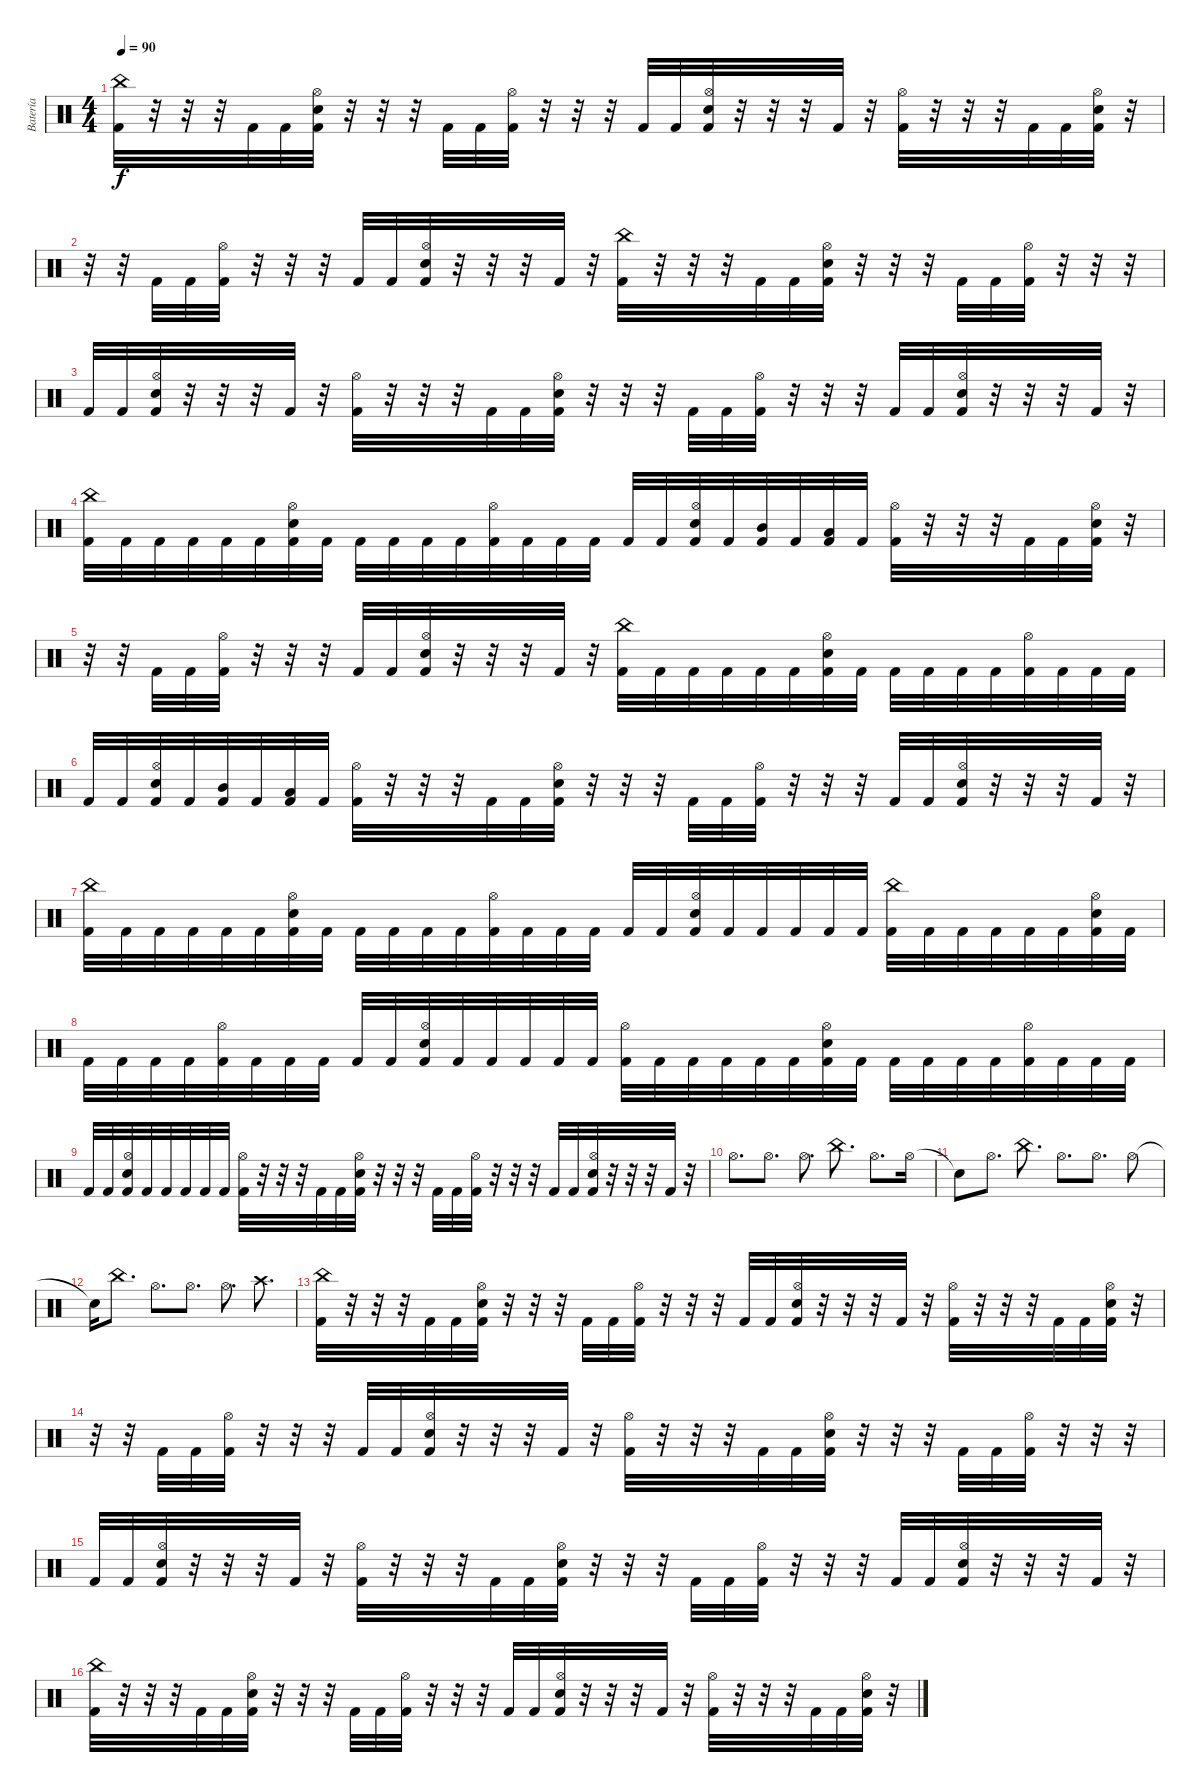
\track ("Batería" "Batería") {instrument percussion}
\staff {score}
\articulation defaults
\ts (4 4)
\tempo 90
\clef neutral
\ks c
("China (hit)" "Kick (hit) 2").32{dy f} r.32 r.32 r.32 "Kick (hit) 2".32 "Kick (hit) 2".32 ("Hi-Hat (open)" "Snare (hit) 2" "Kick (hit) 2").32 r.32 r.32 r.32 "Kick (hit) 2".32 "Kick (hit) 2".32 ("Hi-Hat (open)" "Kick (hit) 2").32 r.32 r.32 r.32 "Kick (hit) 2".32 "Kick (hit) 2".32 ("Hi-Hat (open)" "Snare (hit) 2" "Kick (hit) 2").32 r.32 r.32 r.32 "Kick (hit) 2".32 r.32 ("Hi-Hat (open)" "Kick (hit) 2").32 r.32 r.32 r.32 "Kick (hit) 2".32 "Kick (hit) 2".32 ("Hi-Hat (open)" "Snare (hit) 2" "Kick (hit) 2").32 r.32 |
r.32 r.32 "Kick (hit) 2".32 "Kick (hit) 2".32 ("Hi-Hat (open)" "Kick (hit) 2").32 r.32 r.32 r.32 "Kick (hit) 2".32 "Kick (hit) 2".32 ("Hi-Hat (open)" "Snare (hit) 2" "Kick (hit) 2").32 r.32 r.32 r.32 "Kick (hit) 2".32 r.32 ("China (hit)" "Kick (hit) 2").32 r.32 r.32 r.32 "Kick (hit) 2".32 "Kick (hit) 2".32 ("Hi-Hat (open)" "Snare (hit) 2" "Kick (hit) 2").32 r.32 r.32 r.32 "Kick (hit) 2".32 "Kick (hit) 2".32 ("Hi-Hat (open)" "Kick (hit) 2").32 r.32 r.32 r.32 |
"Kick (hit) 2".32 "Kick (hit) 2".32 ("Hi-Hat (open)" "Snare (hit) 2" "Kick (hit) 2").32 r.32 r.32 r.32 "Kick (hit) 2".32 r.32 ("Hi-Hat (open)" "Kick (hit) 2").32 r.32 r.32 r.32 "Kick (hit) 2".32 "Kick (hit) 2".32 ("Hi-Hat (open)" "Snare (hit) 2" "Kick (hit) 2").32 r.32 r.32 r.32 "Kick (hit) 2".32 "Kick (hit) 2".32 ("Hi-Hat (open)" "Kick (hit) 2").32 r.32 r.32 r.32 "Kick (hit) 2".32 "Kick (hit) 2".32 ("Hi-Hat (open)" "Snare (hit) 2" "Kick (hit) 2").32 r.32 r.32 r.32 "Kick (hit) 2".32 r.32 |
("China (hit)" "Kick (hit) 2").32 "Kick (hit) 2".32 "Kick (hit) 2".32 "Kick (hit) 2".32 "Kick (hit) 2".32 "Kick (hit) 2".32 ("Hi-Hat (open)" "Snare (hit) 2" "Kick (hit) 2").32 "Kick (hit) 2".32 "Kick (hit) 2".32 "Kick (hit) 2".32 "Kick (hit) 2".32 "Kick (hit) 2".32 ("Hi-Hat (open)" "Kick (hit) 2").32 "Kick (hit) 2".32 "Kick (hit) 2".32 "Kick (hit) 2".32 "Kick (hit) 2".32 "Kick (hit) 2".32 ("Hi-Hat (open)" "Snare (hit) 2" "Kick (hit) 2").32 "Kick (hit) 2".32 ("Mid Tom (hit)" "Kick (hit) 2").32 "Kick (hit) 2".32 ("Low Tom (hit)" "Kick (hit) 2").32 "Kick (hit) 2".32 ("Hi-Hat (open)" "Kick (hit) 2").32 r.32 r.32 r.32 "Kick (hit) 2".32 "Kick (hit) 2".32 ("Hi-Hat (open)" "Snare (hit) 2" "Kick (hit) 2").32 r.32 |
r.32 r.32 "Kick (hit) 2".32 "Kick (hit) 2".32 ("Hi-Hat (open)" "Kick (hit) 2").32 r.32 r.32 r.32 "Kick (hit) 2".32 "Kick (hit) 2".32 ("Hi-Hat (open)" "Snare (hit) 2" "Kick (hit) 2").32 r.32 r.32 r.32 "Kick (hit) 2".32 r.32 ("China (hit)" "Kick (hit) 2").32 "Kick (hit) 2".32 "Kick (hit) 2".32 "Kick (hit) 2".32 "Kick (hit) 2".32 "Kick (hit) 2".32 ("Hi-Hat (open)" "Snare (hit) 2" "Kick (hit) 2").32 "Kick (hit) 2".32 "Kick (hit) 2".32 "Kick (hit) 2".32 "Kick (hit) 2".32 "Kick (hit) 2".32 ("Hi-Hat (open)" "Kick (hit) 2").32 "Kick (hit) 2".32 "Kick (hit) 2".32 "Kick (hit) 2".32 |
"Kick (hit) 2".32 "Kick (hit) 2".32 ("Hi-Hat (open)" "Snare (hit) 2" "Kick (hit) 2").32 "Kick (hit) 2".32 ("Mid Tom (hit)" "Kick (hit) 2").32 "Kick (hit) 2".32 ("Low Tom (hit)" "Kick (hit) 2").32 "Kick (hit) 2".32 ("Hi-Hat (open)" "Kick (hit) 2").32 r.32 r.32 r.32 "Kick (hit) 2".32 "Kick (hit) 2".32 ("Hi-Hat (open)" "Snare (hit) 2" "Kick (hit) 2").32 r.32 r.32 r.32 "Kick (hit) 2".32 "Kick (hit) 2".32 ("Hi-Hat (open)" "Kick (hit) 2").32 r.32 r.32 r.32 "Kick (hit) 2".32 "Kick (hit) 2".32 ("Hi-Hat (open)" "Snare (hit) 2" "Kick (hit) 2").32 r.32 r.32 r.32 "Kick (hit) 2".32 r.32 |
("China (hit)" "Kick (hit) 2").32 "Kick (hit) 2".32 "Kick (hit) 2".32 "Kick (hit) 2".32 "Kick (hit) 2".32 "Kick (hit) 2".32 ("Hi-Hat (open)" "Snare (hit) 2" "Kick (hit) 2").32 "Kick (hit) 2".32 "Kick (hit) 2".32 "Kick (hit) 2".32 "Kick (hit) 2".32 "Kick (hit) 2".32 ("Hi-Hat (open)" "Kick (hit) 2").32 "Kick (hit) 2".32 "Kick (hit) 2".32 "Kick (hit) 2".32 "Kick (hit) 2".32 "Kick (hit) 2".32 ("Hi-Hat (open)" "Snare (hit) 2" "Kick (hit) 2").32 "Kick (hit) 2".32 "Kick (hit) 2".32 "Kick (hit) 2".32 "Kick (hit) 2".32 "Kick (hit) 2".32 ("China (hit)" "Kick (hit) 2").32 "Kick (hit) 2".32 "Kick (hit) 2".32 "Kick (hit) 2".32 "Kick (hit) 2".32 "Kick (hit) 2".32 ("Hi-Hat (open)" "Snare (hit) 2" "Kick (hit) 2").32 "Kick (hit) 2".32 |
"Kick (hit) 2".32 "Kick (hit) 2".32 "Kick (hit) 2".32 "Kick (hit) 2".32 ("Hi-Hat (open)" "Kick (hit) 2").32 "Kick (hit) 2".32 "Kick (hit) 2".32 "Kick (hit) 2".32 "Kick (hit) 2".32 "Kick (hit) 2".32 ("Hi-Hat (open)" "Snare (hit) 2" "Kick (hit) 2").32 "Kick (hit) 2".32 "Kick (hit) 2".32 "Kick (hit) 2".32 "Kick (hit) 2".32 "Kick (hit) 2".32 ("Hi-Hat (open)" "Kick (hit) 2").32 "Kick (hit) 2".32 "Kick (hit) 2".32 "Kick (hit) 2".32 "Kick (hit) 2".32 "Kick (hit) 2".32 ("Hi-Hat (open)" "Snare (hit) 2" "Kick (hit) 2").32 "Kick (hit) 2".32 "Kick (hit) 2".32 "Kick (hit) 2".32 "Kick (hit) 2".32 "Kick (hit) 2".32 ("Hi-Hat (open)" "Kick (hit) 2").32 "Kick (hit) 2".32 "Kick (hit) 2".32 "Kick (hit) 2".32 |
"Kick (hit) 2".32 "Kick (hit) 2".32 ("Hi-Hat (open)" "Snare (hit) 2" "Kick (hit) 2").32 "Kick (hit) 2".32 "Kick (hit) 2".32 "Kick (hit) 2".32 "Kick (hit) 2".32 "Kick (hit) 2".32 ("Hi-Hat (open)" "Kick (hit) 2").32 r.32 r.32 r.32 "Kick (hit) 2".32 "Kick (hit) 2".32 ("Hi-Hat (open)" "Snare (hit) 2" "Kick (hit) 2").32 r.32 r.32 r.32 "Kick (hit) 2".32 "Kick (hit) 2".32 ("Hi-Hat (open)" "Kick (hit) 2").32 r.32 r.32 r.32 "Kick (hit) 2".32 "Kick (hit) 2".32 ("Hi-Hat (open)" "Snare (hit) 2" "Kick (hit) 2").32 r.32 r.32 r.32 "Kick (hit) 2".32 r.32 |
"Hi-Hat (open)".8{d} "Hi-Hat (open)".8{d} "Hi-Hat (open)".8{d} "China (hit)".8{d} "Hi-Hat (open)".8{d} "Hi-Hat (open)".16 |
"Snare (hit)"{t}.8 "Hi-Hat (open)".8{d} "China (hit)".8{d} "Hi-Hat (open)".8{d} "Hi-Hat (open)".8{d} "Hi-Hat (open)".8 |
"Snare (hit)"{t}.16 "China (hit)".8{d} "Hi-Hat (open)".8{d} "Hi-Hat (open)".8{d} "Hi-Hat (open)".8{d} "Crash high (hit)".8{d} |
("China (hit)" "Kick (hit) 2").32 r.32 r.32 r.32 "Kick (hit) 2".32 "Kick (hit) 2".32 ("Hi-Hat (open)" "Snare (hit) 2" "Kick (hit) 2").32 r.32 r.32 r.32 "Kick (hit) 2".32 "Kick (hit) 2".32 ("Hi-Hat (open)" "Kick (hit) 2").32 r.32 r.32 r.32 "Kick (hit) 2".32 "Kick (hit) 2".32 ("Hi-Hat (open)" "Snare (hit) 2" "Kick (hit) 2").32 r.32 r.32 r.32 "Kick (hit) 2".32 r.32 ("Hi-Hat (open)" "Kick (hit) 2").32 r.32 r.32 r.32 "Kick (hit) 2".32 "Kick (hit) 2".32 ("Hi-Hat (open)" "Snare (hit) 2" "Kick (hit) 2").32 r.32 |
r.32 r.32 "Kick (hit) 2".32 "Kick (hit) 2".32 ("Hi-Hat (open)" "Kick (hit) 2").32 r.32 r.32 r.32 "Kick (hit) 2".32 "Kick (hit) 2".32 ("Hi-Hat (open)" "Snare (hit) 2" "Kick (hit) 2").32 r.32 r.32 r.32 "Kick (hit) 2".32 r.32 ("Hi-Hat (open)" "Kick (hit) 2").32 r.32 r.32 r.32 "Kick (hit) 2".32 "Kick (hit) 2".32 ("Hi-Hat (open)" "Snare (hit) 2" "Kick (hit) 2").32 r.32 r.32 r.32 "Kick (hit) 2".32 "Kick (hit) 2".32 ("Hi-Hat (open)" "Kick (hit) 2").32 r.32 r.32 r.32 |
"Kick (hit) 2".32 "Kick (hit) 2".32 ("Hi-Hat (open)" "Snare (hit) 2" "Kick (hit) 2").32 r.32 r.32 r.32 "Kick (hit) 2".32 r.32 ("Hi-Hat (open)" "Kick (hit) 2").32 r.32 r.32 r.32 "Kick (hit) 2".32 "Kick (hit) 2".32 ("Hi-Hat (open)" "Snare (hit) 2" "Kick (hit) 2").32 r.32 r.32 r.32 "Kick (hit) 2".32 "Kick (hit) 2".32 ("Hi-Hat (open)" "Kick (hit) 2").32 r.32 r.32 r.32 "Kick (hit) 2".32 "Kick (hit) 2".32 ("Hi-Hat (open)" "Snare (hit) 2" "Kick (hit) 2").32 r.32 r.32 r.32 "Kick (hit) 2".32 r.32 |
("China (hit)" "Kick (hit) 2").32 r.32 r.32 r.32 "Kick (hit) 2".32 "Kick (hit) 2".32 ("Hi-Hat (open)" "Snare (hit) 2" "Kick (hit) 2").32 r.32 r.32 r.32 "Kick (hit) 2".32 "Kick (hit) 2".32 ("Hi-Hat (open)" "Kick (hit) 2").32 r.32 r.32 r.32 "Kick (hit) 2".32 "Kick (hit) 2".32 ("Hi-Hat (open)" "Snare (hit) 2" "Kick (hit) 2").32 r.32 r.32 r.32 "Kick (hit) 2".32 r.32 ("Hi-Hat (open)" "Kick (hit) 2").32 r.32 r.32 r.32 "Kick (hit) 2".32 "Kick (hit) 2".32 ("Hi-Hat (open)" "Snare (hit) 2" "Kick (hit) 2").32 r.32
